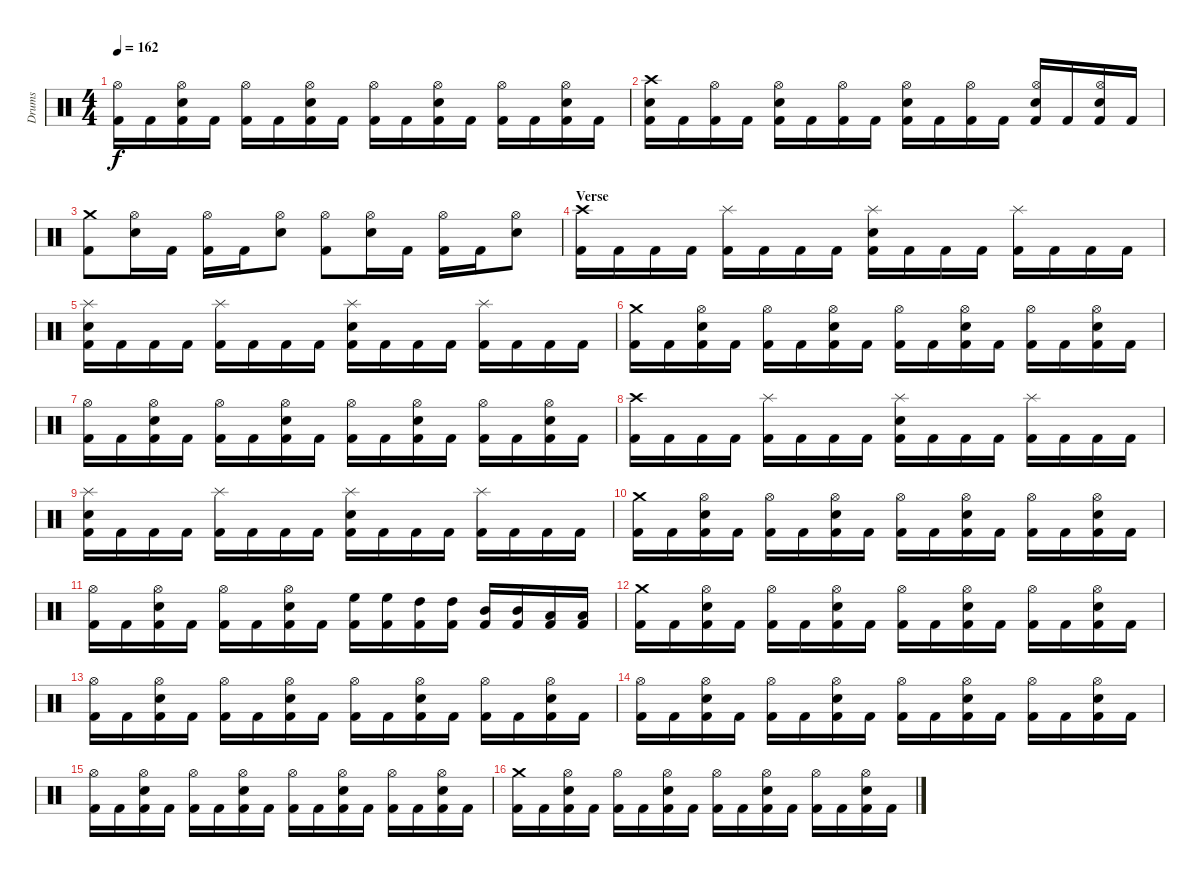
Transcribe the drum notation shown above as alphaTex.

\track ("Drums" "Drums") {instrument percussion}
\staff {score}
\articulation defaults
\ts (4 4)
\tempo 162
\clef neutral
\ks c
("Kick (hit) 2" "Hi-Hat (open)").16{dy f} "Kick (hit) 2".16 ("Kick (hit) 2" "Snare (hit) 2" "Hi-Hat (open)").16 "Kick (hit) 2".16 ("Kick (hit) 2" "Hi-Hat (open)").16 "Kick (hit) 2".16 ("Kick (hit) 2" "Snare (hit) 2" "Hi-Hat (open)").16 "Kick (hit) 2".16 ("Kick (hit) 2" "Hi-Hat (open)").16 "Kick (hit) 2".16 ("Kick (hit) 2" "Snare (hit) 2" "Hi-Hat (open)").16 "Kick (hit) 2".16 ("Kick (hit) 2" "Hi-Hat (open)").16 "Kick (hit) 2".16 ("Kick (hit) 2" "Snare (hit) 2" "Hi-Hat (open)").16 "Kick (hit) 2".16 |
("Kick (hit) 2" "Snare (hit) 2" "Crash high (hit)").16 "Kick (hit) 2".16 ("Kick (hit) 2" "Hi-Hat (open)").16 "Kick (hit) 2".16 ("Kick (hit) 2" "Snare (hit) 2" "Hi-Hat (open)").16 "Kick (hit) 2".16 ("Kick (hit) 2" "Hi-Hat (open)").16 "Kick (hit) 2".16 ("Kick (hit) 2" "Snare (hit) 2" "Hi-Hat (open)").16 "Kick (hit) 2".16 ("Kick (hit) 2" "Hi-Hat (open)").16 "Kick (hit) 2".16 ("Kick (hit) 2" "Snare (hit) 2" "Hi-Hat (open)").16 "Kick (hit) 2".16 ("Kick (hit) 2" "Snare (hit) 2" "Hi-Hat (open)").16 "Kick (hit) 2".16 |
("Kick (hit) 2" "Crash medium (hit)").8 ("Snare (hit) 2" "Hi-Hat (open)").16 "Kick (hit) 2".16 ("Kick (hit) 2" "Hi-Hat (open)").16 "Kick (hit) 2".16 ("Snare (hit) 2" "Hi-Hat (open)").8 ("Kick (hit) 2" "Hi-Hat (open)").8 ("Snare (hit) 2" "Hi-Hat (open)").16 "Kick (hit) 2".16 ("Kick (hit) 2" "Hi-Hat (open)").16 "Kick (hit) 2".16 ("Snare (hit) 2" "Hi-Hat (open)").8 |
\section ("" "Verse")
("Kick (hit) 2" "Crash high (hit)").16 "Kick (hit) 2".16 "Kick (hit) 2".16 "Kick (hit) 2".16 ("Kick (hit) 2" "Splash (hit)").16 "Kick (hit) 2".16 "Kick (hit) 2".16 "Kick (hit) 2".16 ("Kick (hit) 2" "Snare (hit) 2" "Splash (hit)").16 "Kick (hit) 2".16 "Kick (hit) 2".16 "Kick (hit) 2".16 ("Kick (hit) 2" "Splash (hit)").16 "Kick (hit) 2".16 "Kick (hit) 2".16 "Kick (hit) 2".16 |
("Kick (hit) 2" "Snare (hit) 2" "Splash (hit)").16 "Kick (hit) 2".16 "Kick (hit) 2".16 "Kick (hit) 2".16 ("Kick (hit) 2" "Splash (hit)").16 "Kick (hit) 2".16 "Kick (hit) 2".16 "Kick (hit) 2".16 ("Kick (hit) 2" "Snare (hit) 2" "Splash (hit)").16 "Kick (hit) 2".16 "Kick (hit) 2".16 "Kick (hit) 2".16 ("Kick (hit) 2" "Splash (hit)").16 "Kick (hit) 2".16 "Kick (hit) 2".16 "Kick (hit) 2".16 |
("Kick (hit) 2" "Crash medium (hit)").16 "Kick (hit) 2".16 ("Kick (hit) 2" "Snare (hit) 2" "Hi-Hat (open)").16 "Kick (hit) 2".16 ("Kick (hit) 2" "Hi-Hat (open)").16 "Kick (hit) 2".16 ("Kick (hit) 2" "Snare (hit) 2" "Hi-Hat (open)").16 "Kick (hit) 2".16 ("Kick (hit) 2" "Hi-Hat (open)").16 "Kick (hit) 2".16 ("Kick (hit) 2" "Snare (hit) 2" "Hi-Hat (open)").16 "Kick (hit) 2".16 ("Kick (hit) 2" "Hi-Hat (open)").16 "Kick (hit) 2".16 ("Kick (hit) 2" "Snare (hit) 2" "Hi-Hat (open)").16 "Kick (hit) 2".16 |
("Kick (hit) 2" "Hi-Hat (open)").16 "Kick (hit) 2".16 ("Kick (hit) 2" "Snare (hit) 2" "Hi-Hat (open)").16 "Kick (hit) 2".16 ("Kick (hit) 2" "Hi-Hat (open)").16 "Kick (hit) 2".16 ("Kick (hit) 2" "Snare (hit) 2" "Hi-Hat (open)").16 "Kick (hit) 2".16 ("Kick (hit) 2" "Hi-Hat (open)").16 "Kick (hit) 2".16 ("Kick (hit) 2" "Snare (hit) 2" "Hi-Hat (open)").16 "Kick (hit) 2".16 ("Kick (hit) 2" "Hi-Hat (open)").16 "Kick (hit) 2".16 ("Kick (hit) 2" "Snare (hit) 2" "Hi-Hat (open)").16 "Kick (hit) 2".16 |
("Kick (hit) 2" "Crash high (hit)").16 "Kick (hit) 2".16 "Kick (hit) 2".16 "Kick (hit) 2".16 ("Kick (hit) 2" "Splash (hit)").16 "Kick (hit) 2".16 "Kick (hit) 2".16 "Kick (hit) 2".16 ("Kick (hit) 2" "Snare (hit) 2" "Splash (hit)").16 "Kick (hit) 2".16 "Kick (hit) 2".16 "Kick (hit) 2".16 ("Kick (hit) 2" "Splash (hit)").16 "Kick (hit) 2".16 "Kick (hit) 2".16 "Kick (hit) 2".16 |
("Kick (hit) 2" "Snare (hit) 2" "Splash (hit)").16 "Kick (hit) 2".16 "Kick (hit) 2".16 "Kick (hit) 2".16 ("Kick (hit) 2" "Splash (hit)").16 "Kick (hit) 2".16 "Kick (hit) 2".16 "Kick (hit) 2".16 ("Kick (hit) 2" "Snare (hit) 2" "Splash (hit)").16 "Kick (hit) 2".16 "Kick (hit) 2".16 "Kick (hit) 2".16 ("Kick (hit) 2" "Splash (hit)").16 "Kick (hit) 2".16 "Kick (hit) 2".16 "Kick (hit) 2".16 |
("Kick (hit) 2" "Crash medium (hit)").16 "Kick (hit) 2".16 ("Kick (hit) 2" "Snare (hit) 2" "Hi-Hat (open)").16 "Kick (hit) 2".16 ("Kick (hit) 2" "Hi-Hat (open)").16 "Kick (hit) 2".16 ("Kick (hit) 2" "Snare (hit) 2" "Hi-Hat (open)").16 "Kick (hit) 2".16 ("Kick (hit) 2" "Hi-Hat (open)").16 "Kick (hit) 2".16 ("Kick (hit) 2" "Snare (hit) 2" "Hi-Hat (open)").16 "Kick (hit) 2".16 ("Kick (hit) 2" "Hi-Hat (open)").16 "Kick (hit) 2".16 ("Kick (hit) 2" "Snare (hit) 2" "Hi-Hat (open)").16 "Kick (hit) 2".16 |
("Kick (hit) 2" "Hi-Hat (open)").16 "Kick (hit) 2".16 ("Kick (hit) 2" "Snare (hit) 2" "Hi-Hat (open)").16 "Kick (hit) 2".16 ("Kick (hit) 2" "Hi-Hat (open)").16 "Kick (hit) 2".16 ("Kick (hit) 2" "Snare (hit) 2" "Hi-Hat (open)").16 "Kick (hit) 2".16 ("Kick (hit) 2" "High Floor Tom (hit)").16 ("Kick (hit) 2" "High Floor Tom (hit)").16 ("Kick (hit) 2" "High Tom (hit)").16 ("Kick (hit) 2" "High Tom (hit)").16 ("Kick (hit) 2" "Mid Tom (hit)").16 ("Kick (hit) 2" "Mid Tom (hit)").16 ("Kick (hit) 2" "Low Tom (hit)").16 ("Kick (hit) 2" "Low Tom (hit)").16 |
("Kick (hit) 2" "Crash medium (hit)").16 "Kick (hit) 2".16 ("Kick (hit) 2" "Snare (hit) 2" "Hi-Hat (open)").16 "Kick (hit) 2".16 ("Kick (hit) 2" "Hi-Hat (open)").16 "Kick (hit) 2".16 ("Kick (hit) 2" "Snare (hit) 2" "Hi-Hat (open)").16 "Kick (hit) 2".16 ("Kick (hit) 2" "Hi-Hat (open)").16 "Kick (hit) 2".16 ("Kick (hit) 2" "Snare (hit) 2" "Hi-Hat (open)").16 "Kick (hit) 2".16 ("Kick (hit) 2" "Hi-Hat (open)").16 "Kick (hit) 2".16 ("Kick (hit) 2" "Snare (hit) 2" "Hi-Hat (open)").16 "Kick (hit) 2".16 |
("Kick (hit) 2" "Hi-Hat (open)").16 "Kick (hit) 2".16 ("Kick (hit) 2" "Snare (hit) 2" "Hi-Hat (open)").16 "Kick (hit) 2".16 ("Kick (hit) 2" "Hi-Hat (open)").16 "Kick (hit) 2".16 ("Kick (hit) 2" "Snare (hit) 2" "Hi-Hat (open)").16 "Kick (hit) 2".16 ("Kick (hit) 2" "Hi-Hat (open)").16 "Kick (hit) 2".16 ("Kick (hit) 2" "Snare (hit) 2" "Hi-Hat (open)").16 "Kick (hit) 2".16 ("Kick (hit) 2" "Hi-Hat (open)").16 "Kick (hit) 2".16 ("Kick (hit) 2" "Snare (hit) 2" "Hi-Hat (open)").16 "Kick (hit) 2".16 |
("Kick (hit) 2" "Hi-Hat (open)").16 "Kick (hit) 2".16 ("Kick (hit) 2" "Snare (hit) 2" "Hi-Hat (open)").16 "Kick (hit) 2".16 ("Kick (hit) 2" "Hi-Hat (open)").16 "Kick (hit) 2".16 ("Kick (hit) 2" "Snare (hit) 2" "Hi-Hat (open)").16 "Kick (hit) 2".16 ("Kick (hit) 2" "Hi-Hat (open)").16 "Kick (hit) 2".16 ("Kick (hit) 2" "Snare (hit) 2" "Hi-Hat (open)").16 "Kick (hit) 2".16 ("Kick (hit) 2" "Hi-Hat (open)").16 "Kick (hit) 2".16 ("Kick (hit) 2" "Snare (hit) 2" "Hi-Hat (open)").16 "Kick (hit) 2".16 |
("Kick (hit) 2" "Hi-Hat (open)").16 "Kick (hit) 2".16 ("Kick (hit) 2" "Snare (hit) 2" "Hi-Hat (open)").16 "Kick (hit) 2".16 ("Kick (hit) 2" "Hi-Hat (open)").16 "Kick (hit) 2".16 ("Kick (hit) 2" "Snare (hit) 2" "Hi-Hat (open)").16 "Kick (hit) 2".16 ("Kick (hit) 2" "Hi-Hat (open)").16 "Kick (hit) 2".16 ("Kick (hit) 2" "Snare (hit) 2" "Hi-Hat (open)").16 "Kick (hit) 2".16 ("Kick (hit) 2" "Hi-Hat (open)").16 "Kick (hit) 2".16 ("Kick (hit) 2" "Snare (hit) 2" "Hi-Hat (open)").16 "Kick (hit) 2".16 |
("Kick (hit) 2" "Crash medium (hit)").16 "Kick (hit) 2".16 ("Kick (hit) 2" "Snare (hit) 2" "Hi-Hat (open)").16 "Kick (hit) 2".16 ("Kick (hit) 2" "Hi-Hat (open)").16 "Kick (hit) 2".16 ("Kick (hit) 2" "Snare (hit) 2" "Hi-Hat (open)").16 "Kick (hit) 2".16 ("Kick (hit) 2" "Hi-Hat (open)").16 "Kick (hit) 2".16 ("Kick (hit) 2" "Snare (hit) 2" "Hi-Hat (open)").16 "Kick (hit) 2".16 ("Kick (hit) 2" "Hi-Hat (open)").16 "Kick (hit) 2".16 ("Kick (hit) 2" "Snare (hit) 2" "Hi-Hat (open)").16 "Kick (hit) 2".16
